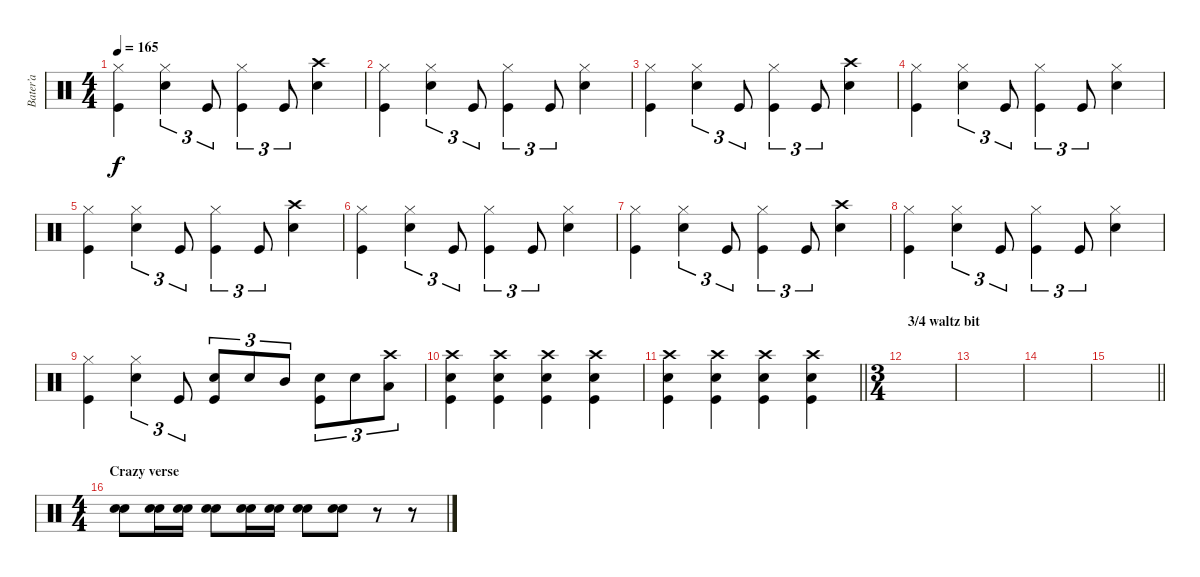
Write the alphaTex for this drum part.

\track ("Bater’a" "Bater’a") {instrument percussion}
\staff {score}
\articulation defaults
\ts (4 4)
\tempo 165
\clef neutral
\ks c
("Hi-Hat (closed)" "Kick (hit)").4{dy f} ("Hi-Hat (closed)" "Snare (hit) 2").4{tu (3 2)} "Kick (hit)".8{tu (3 2)} ("Hi-Hat (closed)" "Kick (hit)").4{tu (3 2)} "Kick (hit)".8{tu (3 2)} ("Crash high (hit)" "Snare (hit) 2").4 |
("Hi-Hat (closed)" "Kick (hit)").4 ("Hi-Hat (closed)" "Snare (hit) 2").4{tu (3 2)} "Kick (hit)".8{tu (3 2)} ("Hi-Hat (closed)" "Kick (hit)").4{tu (3 2)} "Kick (hit)".8{tu (3 2)} ("Hi-Hat (closed)" "Snare (hit) 2").4 |
("Hi-Hat (closed)" "Kick (hit)").4 ("Hi-Hat (closed)" "Snare (hit) 2").4{tu (3 2)} "Kick (hit)".8{tu (3 2)} ("Hi-Hat (closed)" "Kick (hit)").4{tu (3 2)} "Kick (hit)".8{tu (3 2)} ("Crash high (hit)" "Snare (hit) 2").4 |
("Hi-Hat (closed)" "Kick (hit)").4 ("Hi-Hat (closed)" "Snare (hit) 2").4{tu (3 2)} "Kick (hit)".8{tu (3 2)} ("Hi-Hat (closed)" "Kick (hit)").4{tu (3 2)} "Kick (hit)".8{tu (3 2)} ("Hi-Hat (closed)" "Snare (hit) 2").4 |
("Hi-Hat (closed)" "Kick (hit)").4 ("Hi-Hat (closed)" "Snare (hit) 2").4{tu (3 2)} "Kick (hit)".8{tu (3 2)} ("Hi-Hat (closed)" "Kick (hit)").4{tu (3 2)} "Kick (hit)".8{tu (3 2)} ("Crash high (hit)" "Snare (hit) 2").4 |
("Hi-Hat (closed)" "Kick (hit)").4 ("Hi-Hat (closed)" "Snare (hit) 2").4{tu (3 2)} "Kick (hit)".8{tu (3 2)} ("Hi-Hat (closed)" "Kick (hit)").4{tu (3 2)} "Kick (hit)".8{tu (3 2)} ("Hi-Hat (closed)" "Snare (hit) 2").4 |
("Hi-Hat (closed)" "Kick (hit)").4 ("Hi-Hat (closed)" "Snare (hit) 2").4{tu (3 2)} "Kick (hit)".8{tu (3 2)} ("Hi-Hat (closed)" "Kick (hit)").4{tu (3 2)} "Kick (hit)".8{tu (3 2)} ("Crash high (hit)" "Snare (hit) 2").4 |
("Hi-Hat (closed)" "Kick (hit)").4 ("Hi-Hat (closed)" "Snare (hit) 2").4{tu (3 2)} "Kick (hit)".8{tu (3 2)} ("Hi-Hat (closed)" "Kick (hit)").4{tu (3 2)} "Kick (hit)".8{tu (3 2)} ("Hi-Hat (closed)" "Snare (hit) 2").4 |
("Hi-Hat (closed)" "Kick (hit)").4 ("Hi-Hat (closed)" "Snare (hit) 2").4{tu (3 2)} "Kick (hit)".8{tu (3 2)} ("Snare (hit) 2" "Kick (hit)").8{tu (3 2)} "Snare (hit) 2".8{tu (3 2)} "Mid Tom (hit)".8{tu (3 2)} ("Snare (hit) 2" "Kick (hit)").8{tu (3 2)} "Snare (hit) 2".8{tu (3 2)} ("Crash high (hit)" "Low Tom (hit)").8{tu (3 2)} |
("Crash high (hit)" "Kick (hit)" "Snare (hit) 2").4 ("Crash high (hit)" "Kick (hit)" "Snare (hit) 2").4 ("Crash high (hit)" "Kick (hit)" "Snare (hit) 2").4 ("Crash high (hit)" "Kick (hit)" "Snare (hit) 2").4 |
\barLineRight lightlight
("Crash high (hit)" "Kick (hit)" "Snare (hit) 2").4 ("Crash high (hit)" "Kick (hit)" "Snare (hit) 2").4 ("Crash high (hit)" "Kick (hit)" "Snare (hit) 2").4 ("Crash high (hit)" "Kick (hit)" "Snare (hit) 2").4 |
\ts (3 4)
\section ("" "3/4 waltz bit")
|
|
|
\barLineRight lightlight
|
\ts (4 4)
\section ("" "Crazy verse")
("Snare (hit) 2" "Electric Snare (hit)").8 ("Snare (hit) 2" "Electric Snare (hit)").16 ("Snare (hit) 2" "Electric Snare (hit)").16 ("Snare (hit) 2" "Electric Snare (hit)").8 ("Snare (hit) 2" "Electric Snare (hit)").16 ("Snare (hit) 2" "Electric Snare (hit)").16 ("Snare (hit) 2" "Electric Snare (hit)").8 ("Snare (hit) 2" "Electric Snare (hit)").8 r.8 r.8
